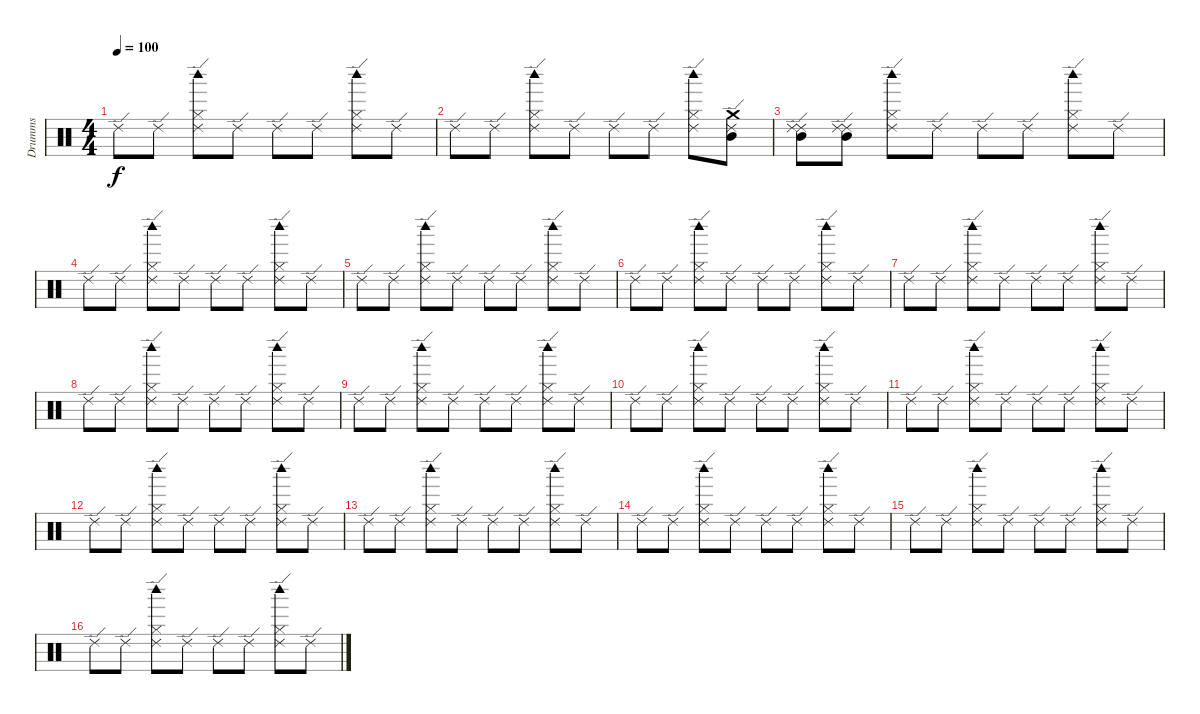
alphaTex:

\track ("Drumms" "Drumms") {instrument percussion}
\staff {score}
\articulation defaults
\ts (4 4)
\tempo 100
\clef neutral
\ks c "Ride (edge) 2".8{dy f} "Ride (edge) 2".8
("Ride (edge) 2" "Hi-Hat (closed)" "Woodblock high (hit)").8 "Ride (edge) 2".8 "Ride (edge) 2".8 "Ride (edge) 2".8 ("Ride (edge) 2" "Hi-Hat (closed)" "Woodblock high (hit)").8 "Ride (edge) 2".8 |
"Ride (edge) 2".8 "Ride (edge) 2".8 ("Ride (edge) 2" "Hi-Hat (closed)" "Woodblock high (hit)").8 "Ride (edge) 2".8 "Ride (edge) 2".8 "Ride (edge) 2".8 ("Ride (edge) 2" "Hi-Hat (closed)" "Woodblock high (hit)").8 ("Mid Tom (hit)" "Crash medium (hit)" "Ride (edge) 2").8 |
("Mid Tom (hit)" "Ride (edge) 2" "Ride (edge) 2").8 ("Mid Tom (hit)" "Ride (edge) 2" "Ride (edge) 2").8 ("Ride (edge) 2" "Hi-Hat (closed)" "Woodblock high (hit)").8 "Ride (edge) 2".8 "Ride (edge) 2".8 "Ride (edge) 2".8 ("Ride (edge) 2" "Hi-Hat (closed)" "Woodblock high (hit)").8 "Ride (edge) 2".8 |
"Ride (edge) 2".8 "Ride (edge) 2".8 ("Ride (edge) 2" "Hi-Hat (closed)" "Woodblock high (hit)").8 "Ride (edge) 2".8 "Ride (edge) 2".8 "Ride (edge) 2".8 ("Ride (edge) 2" "Hi-Hat (closed)" "Woodblock high (hit)").8 "Ride (edge) 2".8 |
"Ride (edge) 2".8 "Ride (edge) 2".8 ("Ride (edge) 2" "Hi-Hat (closed)" "Woodblock high (hit)").8 "Ride (edge) 2".8 "Ride (edge) 2".8 "Ride (edge) 2".8 ("Ride (edge) 2" "Hi-Hat (closed)" "Woodblock high (hit)").8 "Ride (edge) 2".8 |
"Ride (edge) 2".8 "Ride (edge) 2".8 ("Ride (edge) 2" "Hi-Hat (closed)" "Woodblock high (hit)").8 "Ride (edge) 2".8 "Ride (edge) 2".8 "Ride (edge) 2".8 ("Ride (edge) 2" "Hi-Hat (closed)" "Woodblock high (hit)").8 "Ride (edge) 2".8 |
"Ride (edge) 2".8 "Ride (edge) 2".8 ("Ride (edge) 2" "Hi-Hat (closed)" "Woodblock high (hit)").8 "Ride (edge) 2".8 "Ride (edge) 2".8 "Ride (edge) 2".8 ("Ride (edge) 2" "Hi-Hat (closed)" "Woodblock high (hit)").8 "Ride (edge) 2".8 |
"Ride (edge) 2".8 "Ride (edge) 2".8 ("Ride (edge) 2" "Hi-Hat (closed)" "Woodblock high (hit)").8 "Ride (edge) 2".8 "Ride (edge) 2".8 "Ride (edge) 2".8 ("Ride (edge) 2" "Hi-Hat (closed)" "Woodblock high (hit)").8 "Ride (edge) 2".8 |
"Ride (edge) 2".8 "Ride (edge) 2".8 ("Ride (edge) 2" "Hi-Hat (closed)" "Woodblock high (hit)").8 "Ride (edge) 2".8 "Ride (edge) 2".8 "Ride (edge) 2".8 ("Ride (edge) 2" "Hi-Hat (closed)" "Woodblock high (hit)").8 "Ride (edge) 2".8 |
"Ride (edge) 2".8 "Ride (edge) 2".8 ("Ride (edge) 2" "Hi-Hat (closed)" "Woodblock high (hit)").8 "Ride (edge) 2".8 "Ride (edge) 2".8 "Ride (edge) 2".8 ("Ride (edge) 2" "Hi-Hat (closed)" "Woodblock high (hit)").8 "Ride (edge) 2".8 |
"Ride (edge) 2".8 "Ride (edge) 2".8 ("Ride (edge) 2" "Hi-Hat (closed)" "Woodblock high (hit)").8 "Ride (edge) 2".8 "Ride (edge) 2".8 "Ride (edge) 2".8 ("Ride (edge) 2" "Hi-Hat (closed)" "Woodblock high (hit)").8 "Ride (edge) 2".8 |
"Ride (edge) 2".8 "Ride (edge) 2".8 ("Ride (edge) 2" "Hi-Hat (closed)" "Woodblock high (hit)").8 "Ride (edge) 2".8 "Ride (edge) 2".8 "Ride (edge) 2".8 ("Ride (edge) 2" "Hi-Hat (closed)" "Woodblock high (hit)").8 "Ride (edge) 2".8 |
"Ride (edge) 2".8 "Ride (edge) 2".8 ("Ride (edge) 2" "Hi-Hat (closed)" "Woodblock high (hit)").8 "Ride (edge) 2".8 "Ride (edge) 2".8 "Ride (edge) 2".8 ("Ride (edge) 2" "Hi-Hat (closed)" "Woodblock high (hit)").8 "Ride (edge) 2".8 |
"Ride (edge) 2".8 "Ride (edge) 2".8 ("Ride (edge) 2" "Woodblock high (hit)" "Hi-Hat (closed)").8 "Ride (edge) 2".8 "Ride (edge) 2".8 "Ride (edge) 2".8 ("Ride (edge) 2" "Hi-Hat (closed)" "Woodblock high (hit)").8 "Ride (edge) 2".8 |
"Ride (edge) 2".8 "Ride (edge) 2".8 ("Ride (edge) 2" "Hi-Hat (closed)" "Woodblock high (hit)").8 "Ride (edge) 2".8 "Ride (edge) 2".8 "Ride (edge) 2".8 ("Ride (edge) 2" "Hi-Hat (closed)" "Woodblock high (hit)").8 "Ride (edge) 2".8 |
"Ride (edge) 2".8 "Ride (edge) 2".8 ("Ride (edge) 2" "Hi-Hat (closed)" "Woodblock high (hit)").8 "Ride (edge) 2".8 "Ride (edge) 2".8 "Ride (edge) 2".8 ("Ride (edge) 2" "Hi-Hat (closed)" "Woodblock high (hit)").8 "Ride (edge) 2".8
